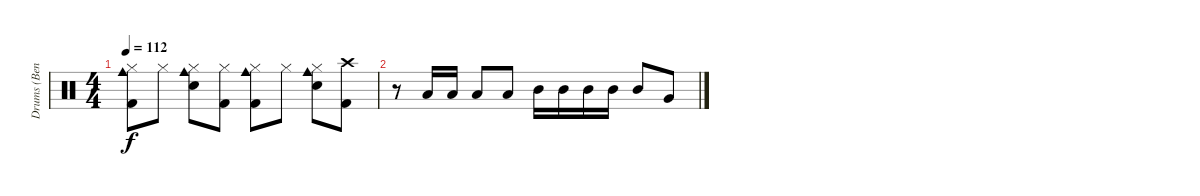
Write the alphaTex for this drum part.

\track ("Drums (Bengerg)" "Drums (Ben") {instrument percussion}
\staff {score}
\articulation defaults
\ts (4 4)
\tempo 112
\clef neutral
\ks c
("Hi-Hat (closed)" "Cowbell medium (hit)" "Kick (hit) 2").8{dy f} "Hi-Hat (closed)".8 ("Hi-Hat (closed)" "Cowbell medium (hit)" "Electric Snare (hit)").8 ("Hi-Hat (closed)" "Kick (hit) 2").8 ("Hi-Hat (closed)" "Cowbell medium (hit)" "Kick (hit) 2").8 "Hi-Hat (closed)".8 ("Hi-Hat (closed)" "Cowbell medium (hit)" "Electric Snare (hit)").8 ("Crash high (hit)" "Kick (hit) 2").8 |
r.8 "Low Tom (hit)".16 "Low Tom (hit)".16 "Low Tom (hit)".8 "Low Tom (hit)".8 "Mid Tom (hit)".16 "Mid Tom (hit)".16 "Mid Tom (hit)".16 "Mid Tom (hit)".16 "Mid Tom (hit)".8 "Very Low Tom (hit)".8
